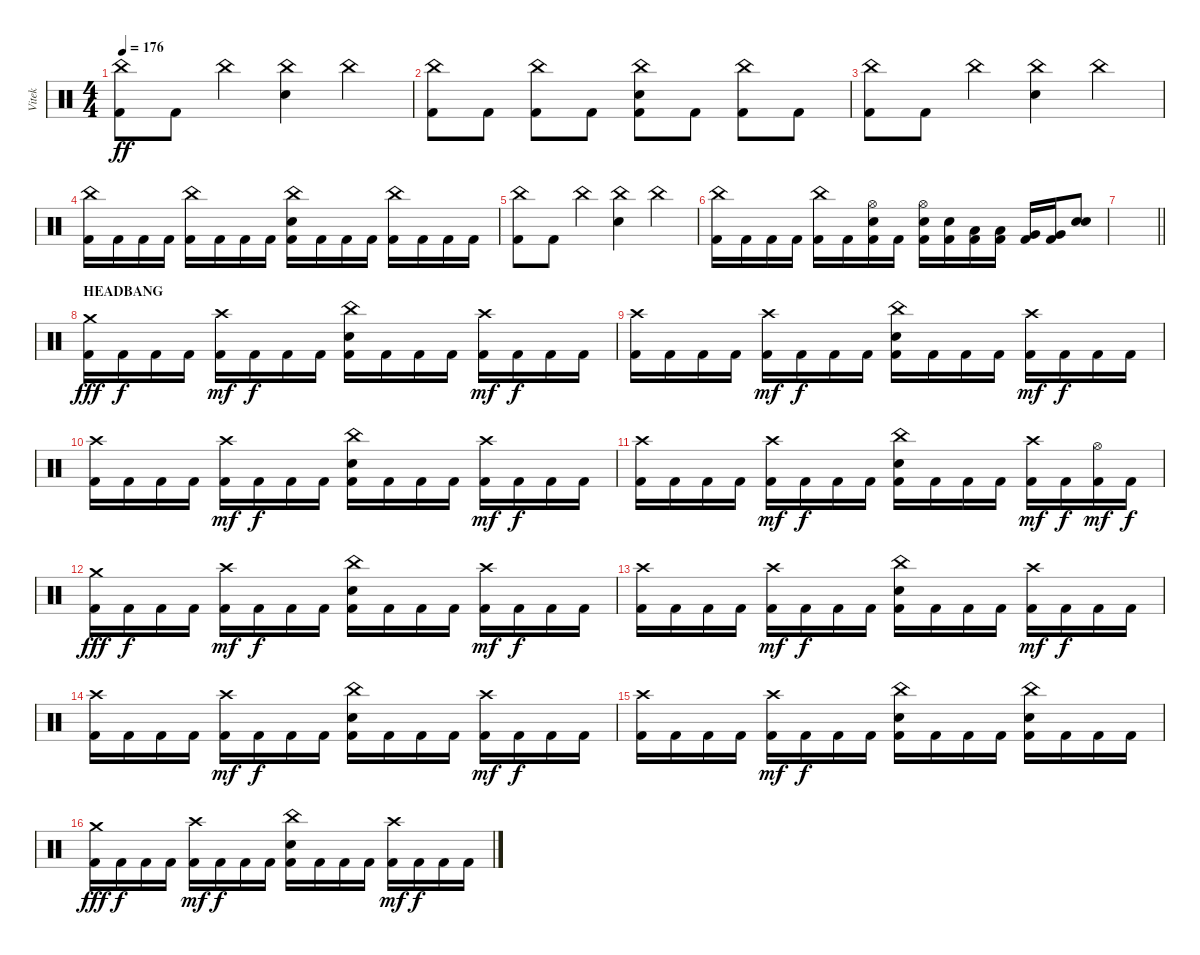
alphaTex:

\track ("Vitek" "Vitek") {instrument percussion}
\staff {score}
\articulation defaults
\ts (4 4)
\tempo 176
\clef neutral
\ks c
("China (hit)" "Kick (hit) 2").8{dy ff} "Kick (hit) 2".8 "China (hit)".4 ("China (hit)" "Electric Snare (hit)").4 "China (hit)".4 |
("China (hit)" "Kick (hit) 2").8 "Kick (hit) 2".8 ("China (hit)" "Kick (hit) 2").8 "Kick (hit) 2".8 ("China (hit)" "Electric Snare (hit)" "Kick (hit) 2").8 "Kick (hit) 2".8 ("China (hit)" "Kick (hit) 2").8 "Kick (hit) 2".8 |
("China (hit)" "Kick (hit) 2").8 "Kick (hit) 2".8 "China (hit)".4 ("China (hit)" "Electric Snare (hit)").4 "China (hit)".4 |
("China (hit)" "Kick (hit) 2").16 "Kick (hit) 2".16 "Kick (hit) 2".16 "Kick (hit) 2".16 ("China (hit)" "Kick (hit) 2").16 "Kick (hit) 2".16 "Kick (hit) 2".16 "Kick (hit) 2".16 ("China (hit)" "Electric Snare (hit)" "Kick (hit) 2").16 "Kick (hit) 2".16 "Kick (hit) 2".16 "Kick (hit) 2".16 ("China (hit)" "Kick (hit) 2").16 "Kick (hit) 2".16 "Kick (hit) 2".16 "Kick (hit) 2".16 |
("China (hit)" "Kick (hit) 2").8 "Kick (hit) 2".8 "China (hit)".4 ("China (hit)" "Electric Snare (hit)").4 "China (hit)".4 |
("China (hit)" "Kick (hit) 2").16 "Kick (hit) 2".16 "Kick (hit) 2".16 "Kick (hit) 2".16 ("China (hit)" "Kick (hit) 2").16 "Kick (hit) 2".16 ("Hi-Hat (open)" "Electric Snare (hit)" "Kick (hit) 2").16 "Kick (hit) 2".16 ("Hi-Hat (open)" "Electric Snare (hit)" "Kick (hit) 2").16 ("Electric Snare (hit)" "Kick (hit) 2").16 ("Low Tom (hit)" "Kick (hit) 2").16 ("Low Tom (hit)" "Kick (hit) 2").16 ("Very Low Tom (hit)" "Kick (hit) 2").16 ("Very Low Tom (hit)" "Kick (hit) 2").16 ("Electric Snare (hit)" "Electric Snare (hit)").8 |
\barLineRight lightlight
|
\section ("" "HEADBANG")
("Crash medium (hit)" "Kick (hit) 2").16{dy fff} "Kick (hit) 2".16{dy f} "Kick (hit) 2".16 "Kick (hit) 2".16 ("Crash high (hit)" "Kick (hit) 2").16{dy mf} "Kick (hit) 2".16{dy f} "Kick (hit) 2".16 "Kick (hit) 2".16 ("China (hit)" "Electric Snare (hit)" "Kick (hit) 2").16 "Kick (hit) 2".16 "Kick (hit) 2".16 "Kick (hit) 2".16 ("Crash high (hit)" "Kick (hit) 2").16{dy mf} "Kick (hit) 2".16{dy f} "Kick (hit) 2".16 "Kick (hit) 2".16 |
("Crash high (hit)" "Kick (hit) 2").16 "Kick (hit) 2".16 "Kick (hit) 2".16 "Kick (hit) 2".16 ("Crash high (hit)" "Kick (hit) 2").16{dy mf} "Kick (hit) 2".16{dy f} "Kick (hit) 2".16 "Kick (hit) 2".16 ("China (hit)" "Electric Snare (hit)" "Kick (hit) 2").16 "Kick (hit) 2".16 "Kick (hit) 2".16 "Kick (hit) 2".16 ("Crash high (hit)" "Kick (hit) 2").16{dy mf} "Kick (hit) 2".16{dy f} "Kick (hit) 2".16 "Kick (hit) 2".16 |
("Crash high (hit)" "Kick (hit) 2").16 "Kick (hit) 2".16 "Kick (hit) 2".16 "Kick (hit) 2".16 ("Crash high (hit)" "Kick (hit) 2").16{dy mf} "Kick (hit) 2".16{dy f} "Kick (hit) 2".16 "Kick (hit) 2".16 ("China (hit)" "Electric Snare (hit)" "Kick (hit) 2").16 "Kick (hit) 2".16 "Kick (hit) 2".16 "Kick (hit) 2".16 ("Crash high (hit)" "Kick (hit) 2").16{dy mf} "Kick (hit) 2".16{dy f} "Kick (hit) 2".16 "Kick (hit) 2".16 |
("Crash high (hit)" "Kick (hit) 2").16 "Kick (hit) 2".16 "Kick (hit) 2".16 "Kick (hit) 2".16 ("Crash high (hit)" "Kick (hit) 2").16{dy mf} "Kick (hit) 2".16{dy f} "Kick (hit) 2".16 "Kick (hit) 2".16 ("China (hit)" "Electric Snare (hit)" "Kick (hit) 2").16 "Kick (hit) 2".16 "Kick (hit) 2".16 "Kick (hit) 2".16 ("Crash high (hit)" "Kick (hit) 2").16{dy mf} "Kick (hit) 2".16{dy f} ("Hi-Hat (open)" "Kick (hit) 2").16{dy mf} "Kick (hit) 2".16{dy f} |
("Crash medium (hit)" "Kick (hit) 2").16{dy fff} "Kick (hit) 2".16{dy f} "Kick (hit) 2".16 "Kick (hit) 2".16 ("Crash high (hit)" "Kick (hit) 2").16{dy mf} "Kick (hit) 2".16{dy f} "Kick (hit) 2".16 "Kick (hit) 2".16 ("China (hit)" "Electric Snare (hit)" "Kick (hit) 2").16 "Kick (hit) 2".16 "Kick (hit) 2".16 "Kick (hit) 2".16 ("Crash high (hit)" "Kick (hit) 2").16{dy mf} "Kick (hit) 2".16{dy f} "Kick (hit) 2".16 "Kick (hit) 2".16 |
("Crash high (hit)" "Kick (hit) 2").16 "Kick (hit) 2".16 "Kick (hit) 2".16 "Kick (hit) 2".16 ("Crash high (hit)" "Kick (hit) 2").16{dy mf} "Kick (hit) 2".16{dy f} "Kick (hit) 2".16 "Kick (hit) 2".16 ("China (hit)" "Electric Snare (hit)" "Kick (hit) 2").16 "Kick (hit) 2".16 "Kick (hit) 2".16 "Kick (hit) 2".16 ("Crash high (hit)" "Kick (hit) 2").16{dy mf} "Kick (hit) 2".16{dy f} "Kick (hit) 2".16 "Kick (hit) 2".16 |
("Crash high (hit)" "Kick (hit) 2").16 "Kick (hit) 2".16 "Kick (hit) 2".16 "Kick (hit) 2".16 ("Crash high (hit)" "Kick (hit) 2").16{dy mf} "Kick (hit) 2".16{dy f} "Kick (hit) 2".16 "Kick (hit) 2".16 ("China (hit)" "Electric Snare (hit)" "Kick (hit) 2").16 "Kick (hit) 2".16 "Kick (hit) 2".16 "Kick (hit) 2".16 ("Crash high (hit)" "Kick (hit) 2").16{dy mf} "Kick (hit) 2".16{dy f} "Kick (hit) 2".16 "Kick (hit) 2".16 |
("Crash high (hit)" "Kick (hit) 2").16 "Kick (hit) 2".16 "Kick (hit) 2".16 "Kick (hit) 2".16 ("Crash high (hit)" "Kick (hit) 2").16{dy mf} "Kick (hit) 2".16{dy f} "Kick (hit) 2".16 "Kick (hit) 2".16 ("China (hit)" "Electric Snare (hit)" "Kick (hit) 2").16 "Kick (hit) 2".16 "Kick (hit) 2".16 "Kick (hit) 2".16 ("China (hit)" "Electric Snare (hit)" "Kick (hit) 2").16 "Kick (hit) 2".16 "Kick (hit) 2".16 "Kick (hit) 2".16 |
("Crash medium (hit)" "Kick (hit) 2").16{dy fff} "Kick (hit) 2".16{dy f} "Kick (hit) 2".16 "Kick (hit) 2".16 ("Crash high (hit)" "Kick (hit) 2").16{dy mf} "Kick (hit) 2".16{dy f} "Kick (hit) 2".16 "Kick (hit) 2".16 ("China (hit)" "Electric Snare (hit)" "Kick (hit) 2").16 "Kick (hit) 2".16 "Kick (hit) 2".16 "Kick (hit) 2".16 ("Crash high (hit)" "Kick (hit) 2").16{dy mf} "Kick (hit) 2".16{dy f} "Kick (hit) 2".16 "Kick (hit) 2".16
